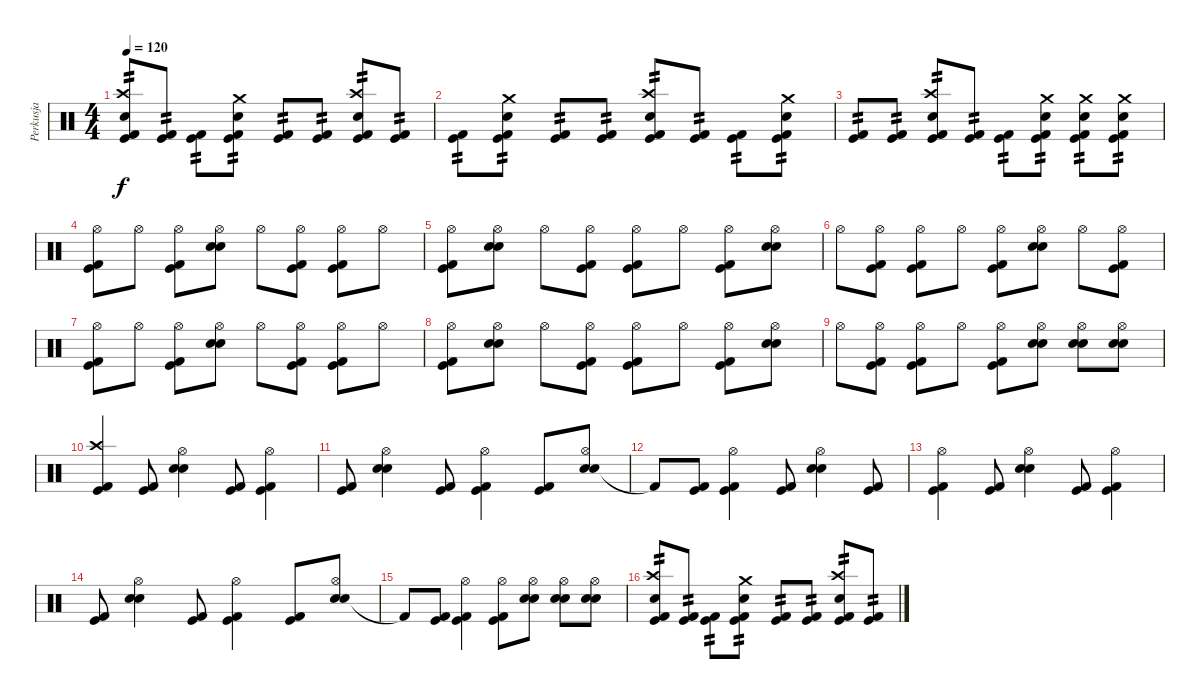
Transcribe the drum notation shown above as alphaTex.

\track ("Perkusja" "Perkusja") {instrument percussion}
\staff {score}
\articulation defaults
\ts (4 4)
\tempo 120
\clef neutral
\ks c
("Kick (hit) 2" "Crash high (hit)" "Kick (hit)" "Snare (hit) 2").8{tp 2 dy f} ("Kick (hit) 2" "Kick (hit)").8{tp 2} ("Kick (hit) 2" "Kick (hit)").8{tp 2} ("Kick (hit) 2" "Crash medium (hit)" "Kick (hit)" "Snare (hit) 2").8{tp 2} ("Kick (hit) 2" "Kick (hit)").8{tp 2} ("Kick (hit) 2" "Kick (hit)").8{tp 2} ("Kick (hit) 2" "Crash high (hit)" "Kick (hit)" "Snare (hit) 2").8{tp 2} ("Kick (hit) 2" "Kick (hit)").8{tp 2} |
("Kick (hit) 2" "Kick (hit)").8{tp 2} ("Kick (hit) 2" "Crash medium (hit)" "Kick (hit)" "Snare (hit) 2").8{tp 2} ("Kick (hit) 2" "Kick (hit)").8{tp 2} ("Kick (hit) 2" "Kick (hit)").8{tp 2} ("Kick (hit) 2" "Crash high (hit)" "Kick (hit)" "Snare (hit) 2").8{tp 2} ("Kick (hit) 2" "Kick (hit)").8{tp 2} ("Kick (hit) 2" "Kick (hit)").8{tp 2} ("Kick (hit) 2" "Crash medium (hit)" "Kick (hit)" "Snare (hit) 2").8{tp 2} |
("Kick (hit) 2" "Kick (hit)").8{tp 2} ("Kick (hit) 2" "Kick (hit)").8{tp 2} ("Kick (hit) 2" "Crash high (hit)" "Kick (hit)" "Snare (hit) 2").8{tp 2} ("Kick (hit) 2" "Kick (hit)").8{tp 2} ("Kick (hit) 2" "Kick (hit)").8{tp 2} ("Kick (hit) 2" "Crash medium (hit)" "Kick (hit)" "Snare (hit) 2").8{tp 2} ("Kick (hit) 2" "Crash medium (hit)" "Kick (hit)" "Snare (hit) 2").8{tp 2} ("Kick (hit) 2" "Crash medium (hit)" "Kick (hit)" "Snare (hit) 2").8{tp 2} |
("Hi-Hat (open)" "Kick (hit)" "Kick (hit) 2").8 "Hi-Hat (open)".8 ("Hi-Hat (open)" "Kick (hit)" "Kick (hit) 2").8 ("Hi-Hat (open)" "Snare (hit) 2" "Electric Snare (hit)").8 "Hi-Hat (open)".8 ("Hi-Hat (open)" "Kick (hit)" "Kick (hit) 2").8 ("Hi-Hat (open)" "Kick (hit)" "Kick (hit) 2").8 "Hi-Hat (open)".8 |
("Hi-Hat (open)" "Kick (hit)" "Kick (hit) 2").8 ("Hi-Hat (open)" "Snare (hit) 2" "Electric Snare (hit)").8 "Hi-Hat (open)".8 ("Hi-Hat (open)" "Kick (hit)" "Kick (hit) 2").8 ("Hi-Hat (open)" "Kick (hit)" "Kick (hit) 2").8 "Hi-Hat (open)".8 ("Hi-Hat (open)" "Kick (hit)" "Kick (hit) 2").8 ("Hi-Hat (open)" "Snare (hit) 2" "Electric Snare (hit)").8 |
"Hi-Hat (open)".8 ("Hi-Hat (open)" "Kick (hit)" "Kick (hit) 2").8 ("Hi-Hat (open)" "Kick (hit)" "Kick (hit) 2").8 "Hi-Hat (open)".8 ("Hi-Hat (open)" "Kick (hit)" "Kick (hit) 2").8 ("Hi-Hat (open)" "Snare (hit) 2" "Electric Snare (hit)").8 "Hi-Hat (open)".8 ("Hi-Hat (open)" "Kick (hit)" "Kick (hit) 2").8 |
("Hi-Hat (open)" "Kick (hit)" "Kick (hit) 2").8 "Hi-Hat (open)".8 ("Hi-Hat (open)" "Kick (hit)" "Kick (hit) 2").8 ("Hi-Hat (open)" "Snare (hit) 2" "Electric Snare (hit)").8 "Hi-Hat (open)".8 ("Hi-Hat (open)" "Kick (hit)" "Kick (hit) 2").8 ("Hi-Hat (open)" "Kick (hit)" "Kick (hit) 2").8 "Hi-Hat (open)".8 |
("Hi-Hat (open)" "Kick (hit)" "Kick (hit) 2").8 ("Hi-Hat (open)" "Snare (hit) 2" "Electric Snare (hit)").8 "Hi-Hat (open)".8 ("Hi-Hat (open)" "Kick (hit)" "Kick (hit) 2").8 ("Hi-Hat (open)" "Kick (hit)" "Kick (hit) 2").8 "Hi-Hat (open)".8 ("Hi-Hat (open)" "Kick (hit)" "Kick (hit) 2").8 ("Hi-Hat (open)" "Snare (hit) 2" "Electric Snare (hit)").8 |
"Hi-Hat (open)".8 ("Hi-Hat (open)" "Kick (hit)" "Kick (hit) 2").8 ("Hi-Hat (open)" "Kick (hit)" "Kick (hit) 2").8 "Hi-Hat (open)".8 ("Hi-Hat (open)" "Kick (hit)" "Kick (hit) 2").8 ("Hi-Hat (open)" "Snare (hit) 2" "Electric Snare (hit)").8 ("Hi-Hat (open)" "Snare (hit) 2" "Electric Snare (hit)").8 ("Hi-Hat (open)" "Snare (hit) 2" "Electric Snare (hit)").8 |
("Kick (hit) 2" "Kick (hit)" "Crash high (hit)").4 ("Kick (hit) 2" "Kick (hit)").8 ("Snare (hit) 2" "Electric Snare (hit)" "Hi-Hat (open)").4 ("Kick (hit) 2" "Kick (hit)").8 ("Kick (hit) 2" "Kick (hit)" "Hi-Hat (open)").4 |
("Kick (hit) 2" "Kick (hit)").8 ("Snare (hit) 2" "Electric Snare (hit)" "Hi-Hat (open)").4 ("Kick (hit) 2" "Kick (hit)").8 ("Kick (hit) 2" "Kick (hit)" "Hi-Hat (open)").4 ("Kick (hit) 2" "Kick (hit)").8 ("Snare (hit) 2" "Electric Snare (hit)" "Hi-Hat (open)").8 |
"Kick (hit) 2"{t}.8 ("Kick (hit) 2" "Kick (hit)").8 ("Kick (hit) 2" "Kick (hit)" "Hi-Hat (open)").4 ("Kick (hit) 2" "Kick (hit)").8 ("Snare (hit) 2" "Electric Snare (hit)" "Hi-Hat (open)").4 ("Kick (hit) 2" "Kick (hit)").8 |
("Kick (hit) 2" "Kick (hit)" "Hi-Hat (open)").4 ("Kick (hit) 2" "Kick (hit)").8 ("Snare (hit) 2" "Electric Snare (hit)" "Hi-Hat (open)").4 ("Kick (hit) 2" "Kick (hit)").8 ("Kick (hit) 2" "Kick (hit)" "Hi-Hat (open)").4 |
("Kick (hit) 2" "Kick (hit)").8 ("Snare (hit) 2" "Electric Snare (hit)" "Hi-Hat (open)").4 ("Kick (hit) 2" "Kick (hit)").8 ("Kick (hit) 2" "Kick (hit)" "Hi-Hat (open)").4 ("Kick (hit) 2" "Kick (hit)").8 ("Snare (hit) 2" "Electric Snare (hit)" "Hi-Hat (open)").8 |
"Kick (hit) 2"{t}.8 ("Kick (hit) 2" "Kick (hit)").8 ("Kick (hit) 2" "Kick (hit)" "Hi-Hat (open)").4 ("Kick (hit) 2" "Kick (hit)" "Hi-Hat (open)").8 ("Snare (hit) 2" "Electric Snare (hit)" "Hi-Hat (open)").8 ("Snare (hit) 2" "Electric Snare (hit)" "Hi-Hat (open)").8 ("Snare (hit) 2" "Electric Snare (hit)" "Hi-Hat (open)").8 |
("Kick (hit) 2" "Crash high (hit)" "Kick (hit)" "Snare (hit) 2").8{tp 2} ("Kick (hit) 2" "Kick (hit)").8{tp 2} ("Kick (hit) 2" "Kick (hit)").8{tp 2} ("Kick (hit) 2" "Crash medium (hit)" "Kick (hit)" "Snare (hit) 2").8{tp 2} ("Kick (hit) 2" "Kick (hit)").8{tp 2} ("Kick (hit) 2" "Kick (hit)").8{tp 2} ("Kick (hit) 2" "Crash high (hit)" "Kick (hit)" "Snare (hit) 2").8{tp 2} ("Kick (hit) 2" "Kick (hit)").8{tp 2}
